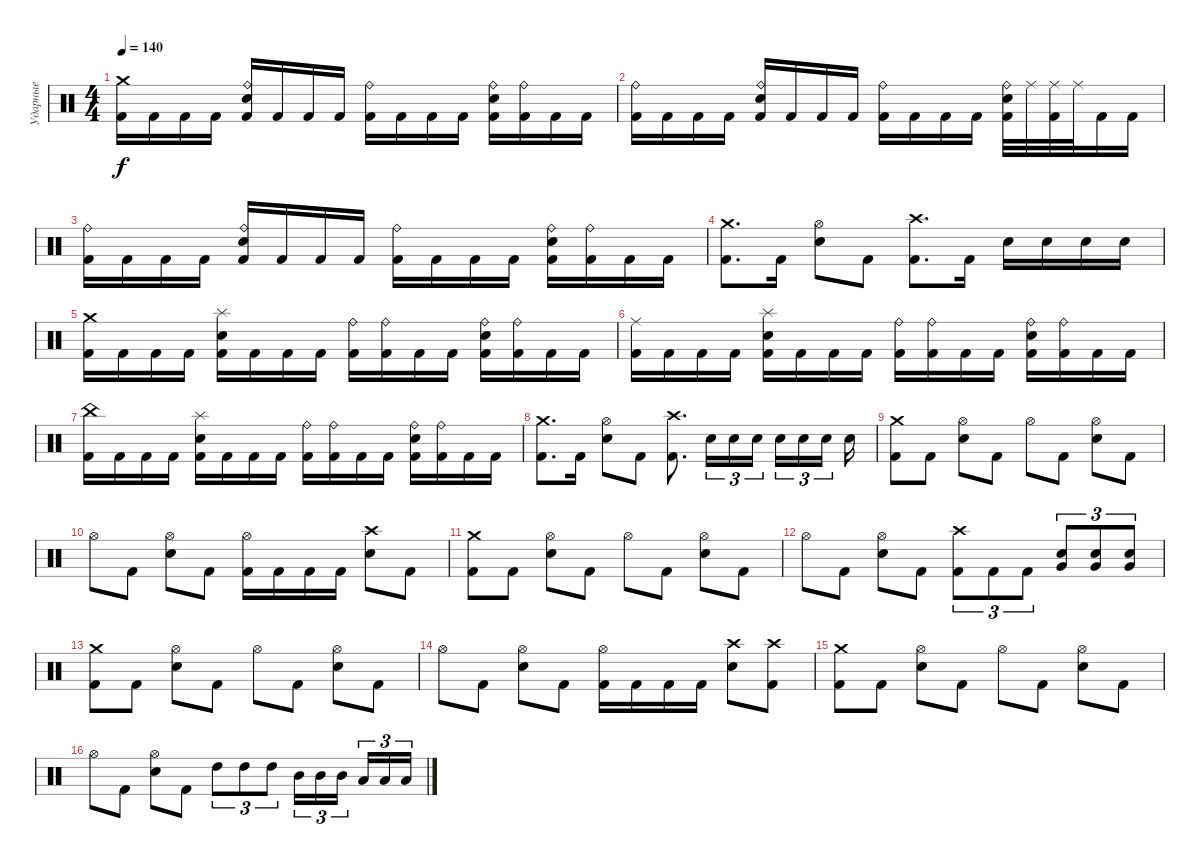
\track ("Ударные" "Ударные") {instrument percussion}
\staff {score}
\articulation defaults
\ts (4 4)
\tempo 140
\clef neutral
\ks c
("Crash medium (hit)" "Kick (hit) 2").16{dy f} "Kick (hit) 2".16 "Kick (hit) 2".16 "Kick (hit) 2".16 ("Ride (bell)" "Electric Snare (hit)" "Kick (hit) 2").16 "Kick (hit) 2".16 "Kick (hit) 2".16 "Kick (hit) 2".16 ("Ride (bell)" "Kick (hit) 2").16 "Kick (hit) 2".16 "Kick (hit) 2".16 "Kick (hit) 2".16 ("Ride (bell)" "Electric Snare (hit)" "Kick (hit) 2").16 ("Ride (bell)" "Kick (hit) 2").16 "Kick (hit) 2".16 "Kick (hit) 2".16 |
("Ride (bell)" "Kick (hit) 2").16 "Kick (hit) 2".16 "Kick (hit) 2".16 "Kick (hit) 2".16 ("Ride (bell)" "Electric Snare (hit)" "Kick (hit) 2").16 "Kick (hit) 2".16 "Kick (hit) 2".16 "Kick (hit) 2".16 ("Ride (bell)" "Kick (hit) 2").16 "Kick (hit) 2".16 "Kick (hit) 2".16 "Kick (hit) 2".16 ("Ride (bell)" "Electric Snare (hit)" "Kick (hit) 2").32 "Ride (middle)".32 ("Ride (middle)" "Kick (hit) 2").32 "Ride (middle)".32 "Kick (hit) 2".16 "Kick (hit) 2".16 |
("Ride (bell)" "Kick (hit) 2").16 "Kick (hit) 2".16 "Kick (hit) 2".16 "Kick (hit) 2".16 ("Ride (bell)" "Electric Snare (hit)" "Kick (hit) 2").16 "Kick (hit) 2".16 "Kick (hit) 2".16 "Kick (hit) 2".16 ("Ride (bell)" "Kick (hit) 2").16 "Kick (hit) 2".16 "Kick (hit) 2".16 "Kick (hit) 2".16 ("Ride (bell)" "Electric Snare (hit)" "Kick (hit) 2").16 ("Ride (bell)" "Kick (hit) 2").16 "Kick (hit) 2".16 "Kick (hit) 2".16 |
("Crash medium (hit)" "Kick (hit) 2").8{d} "Kick (hit) 2".16 ("Hi-Hat (open)" "Electric Snare (hit)").8 "Kick (hit) 2".8 ("Crash high (hit)" "Kick (hit) 2").8{d} "Kick (hit) 2".16 "Electric Snare (hit)".16 "Electric Snare (hit)".16 "Electric Snare (hit)".16 "Electric Snare (hit)".16 |
("Crash medium (hit)" "Kick (hit) 2").16 "Kick (hit) 2".16 "Kick (hit) 2".16 "Kick (hit) 2".16 ("Splash (hit)" "Electric Snare (hit)" "Kick (hit) 2").16 "Kick (hit) 2".16 "Kick (hit) 2".16 "Kick (hit) 2".16 ("Ride (bell)" "Kick (hit) 2").16 ("Ride (bell)" "Kick (hit) 2").16 "Kick (hit) 2".16 "Kick (hit) 2".16 ("Ride (bell)" "Electric Snare (hit)" "Kick (hit) 2").16 ("Ride (bell)" "Kick (hit) 2").16 "Kick (hit) 2".16 "Kick (hit) 2".16 |
("Ride (middle)" "Kick (hit) 2").16 "Kick (hit) 2".16 "Kick (hit) 2".16 "Kick (hit) 2".16 ("Splash (hit)" "Electric Snare (hit)" "Kick (hit) 2").16 "Kick (hit) 2".16 "Kick (hit) 2".16 "Kick (hit) 2".16 ("Ride (bell)" "Kick (hit) 2").16 ("Ride (bell)" "Kick (hit) 2").16 "Kick (hit) 2".16 "Kick (hit) 2".16 ("Ride (bell)" "Electric Snare (hit)" "Kick (hit) 2").16 ("Ride (bell)" "Kick (hit) 2").16 "Kick (hit) 2".16 "Kick (hit) 2".16 |
("China (hit)" "Kick (hit) 2").16 "Kick (hit) 2".16 "Kick (hit) 2".16 "Kick (hit) 2".16 ("Splash (hit)" "Electric Snare (hit)" "Kick (hit) 2").16 "Kick (hit) 2".16 "Kick (hit) 2".16 "Kick (hit) 2".16 ("Ride (bell)" "Kick (hit) 2").16 ("Ride (bell)" "Kick (hit) 2").16 "Kick (hit) 2".16 "Kick (hit) 2".16 ("Ride (bell)" "Electric Snare (hit)" "Kick (hit) 2").16 ("Ride (bell)" "Kick (hit) 2").16 "Kick (hit) 2".16 "Kick (hit) 2".16 |
("Crash medium (hit)" "Kick (hit) 2").8{d} "Kick (hit) 2".16 ("Hi-Hat (open)" "Electric Snare (hit)").8 "Kick (hit) 2".8 ("Crash high (hit)" "Kick (hit) 2").8{d} "Electric Snare (hit)".16{tu (3 2)} "Electric Snare (hit)".16{tu (3 2)} "Electric Snare (hit)".16{tu (3 2) beam splitsecondary} "Electric Snare (hit)".16{tu (3 2)} "Electric Snare (hit)".16{tu (3 2)} "Electric Snare (hit)".16{tu (3 2) beam splitsecondary} "Electric Snare (hit)".16 |
("Crash medium (hit)" "Kick (hit) 2").8 "Kick (hit) 2".8 ("Hi-Hat (open)" "Electric Snare (hit)").8 "Kick (hit) 2".8 "Hi-Hat (open)".8 "Kick (hit) 2".8 ("Hi-Hat (open)" "Electric Snare (hit)").8 "Kick (hit) 2".8 |
"Hi-Hat (open)".8 "Kick (hit) 2".8 ("Hi-Hat (open)" "Electric Snare (hit)").8 "Kick (hit) 2".8 ("Hi-Hat (open)" "Kick (hit) 2").16 "Kick (hit) 2".16 "Kick (hit) 2".16 "Kick (hit) 2".16 ("Crash high (hit)" "Electric Snare (hit)").8 "Kick (hit) 2".8 |
("Crash medium (hit)" "Kick (hit) 2").8 "Kick (hit) 2".8 ("Hi-Hat (open)" "Electric Snare (hit)").8 "Kick (hit) 2".8 "Hi-Hat (open)".8 "Kick (hit) 2".8 ("Hi-Hat (open)" "Electric Snare (hit)").8 "Kick (hit) 2".8 |
"Hi-Hat (open)".8 "Kick (hit) 2".8 ("Hi-Hat (open)" "Electric Snare (hit)").8 "Kick (hit) 2".8 ("Crash high (hit)" "Kick (hit) 2").8{tu (3 2)} "Kick (hit) 2".8{tu (3 2)} "Kick (hit) 2".8{tu (3 2)} ("Electric Snare (hit)" "Very Low Tom (hit)").8{tu (3 2)} ("Electric Snare (hit)" "Very Low Tom (hit)").8{tu (3 2)} ("Electric Snare (hit)" "Very Low Tom (hit)").8{tu (3 2)} |
("Crash medium (hit)" "Kick (hit) 2").8 "Kick (hit) 2".8 ("Hi-Hat (open)" "Electric Snare (hit)").8 "Kick (hit) 2".8 "Hi-Hat (open)".8 "Kick (hit) 2".8 ("Hi-Hat (open)" "Electric Snare (hit)").8 "Kick (hit) 2".8 |
"Hi-Hat (open)".8 "Kick (hit) 2".8 ("Hi-Hat (open)" "Electric Snare (hit)").8 "Kick (hit) 2".8 ("Hi-Hat (open)" "Kick (hit) 2").16 "Kick (hit) 2".16 "Kick (hit) 2".16 "Kick (hit) 2".16 ("Crash high (hit)" "Electric Snare (hit)").8 ("Crash high (hit)" "Kick (hit) 2").8 |
("Crash medium (hit)" "Kick (hit) 2").8 "Kick (hit) 2".8 ("Hi-Hat (open)" "Electric Snare (hit)").8 "Kick (hit) 2".8 "Hi-Hat (open)".8 "Kick (hit) 2".8 ("Hi-Hat (open)" "Electric Snare (hit)").8 "Kick (hit) 2".8 |
"Hi-Hat (open)".8 "Kick (hit) 2".8 ("Hi-Hat (open)" "Electric Snare (hit)").8 "Kick (hit) 2".8 "High Tom (hit)".8{tu (3 2)} "High Tom (hit)".8{tu (3 2)} "High Tom (hit)".8{tu (3 2)} "Mid Tom (hit)".16{tu (3 2)} "Mid Tom (hit)".16{tu (3 2)} "Mid Tom (hit)".16{tu (3 2) beam splitsecondary} "Low Tom (hit)".16{tu (3 2)} "Low Tom (hit)".16{tu (3 2)} "Low Tom (hit)".16{tu (3 2)}
